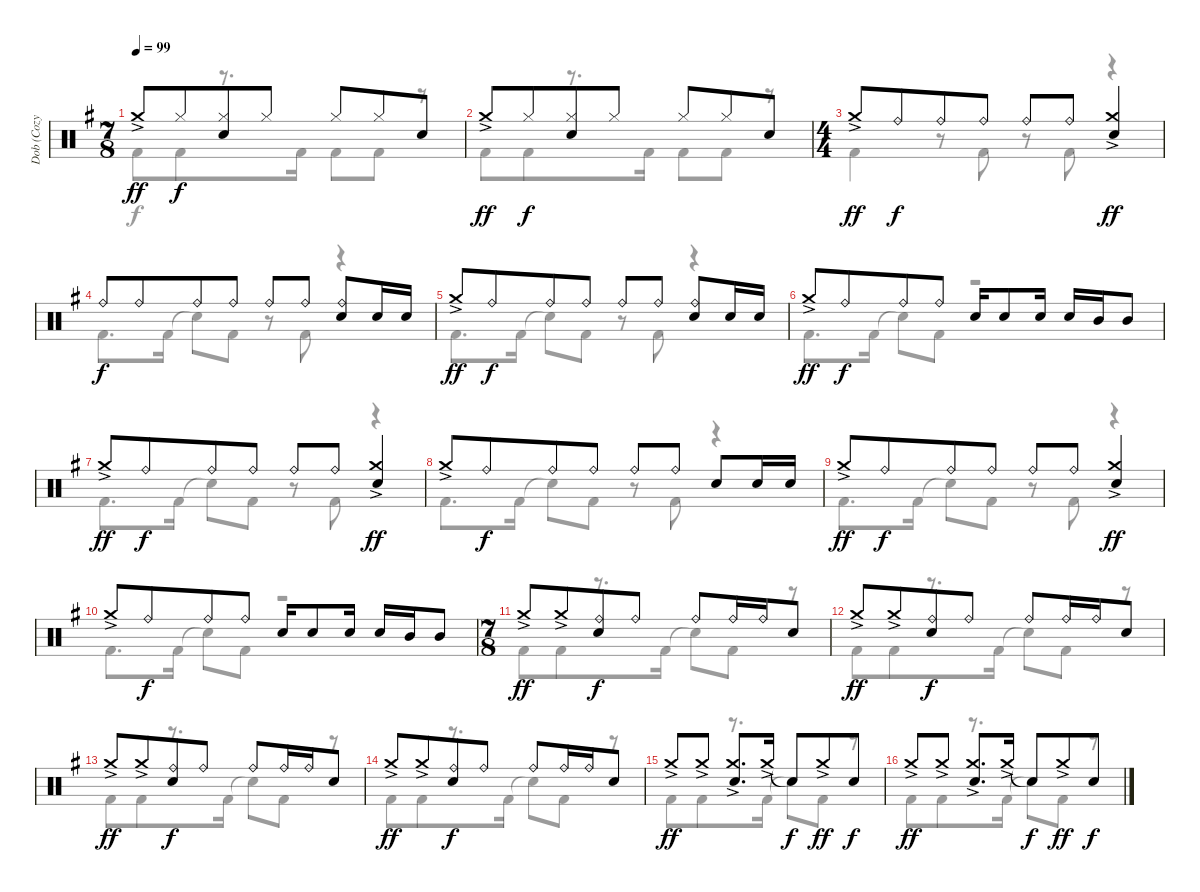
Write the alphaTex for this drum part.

\track ("Dob (Cozy Powell)" "Dob (Cozy ") {instrument percussion}
\staff {score}
\articulation defaults
\voice
\ts (7 8)
\tempo 99
\clef neutral
\ks g "Crash medium (hit)"{ac}.8{dy ff} "Hi-Hat (closed)".8{dy f}
("Hi-Hat (closed)" "Electric Snare (hit)").8{beam merge} "Hi-Hat (closed)".8{beam split} "Hi-Hat (closed)".8{beam merge} "Hi-Hat (closed)".8 "Electric Snare (hit)".8 |
"Crash medium (hit)"{ac}.8{dy ff} "Hi-Hat (closed)".8{dy f} ("Hi-Hat (closed)" "Electric Snare (hit)").8{beam merge} "Hi-Hat (closed)".8{beam split} "Hi-Hat (closed)".8{beam merge} "Hi-Hat (closed)".8 "Electric Snare (hit)".8 |
\ts (4 4)
"Crash medium (hit)"{ac}.8{dy ff} "Ride (bell)".8{dy f beam merge} "Ride (bell)".8 "Ride (bell)".8 "Ride (bell)".8 "Ride (bell)".8 ("Crash medium (hit)"{ac} "Electric Snare (hit)").4{dy ff} |
"Ride (bell)".8{dy f} "Ride (bell)".8{beam merge} "Ride (bell)".8 "Ride (bell)".8 "Ride (bell)".8 "Ride (bell)".8 ("Ride (bell)" "Electric Snare (hit)").8 "Electric Snare (hit)".16 "Electric Snare (hit)".16 |
"Crash medium (hit)"{ac}.8{dy ff} "Ride (bell)".8{dy f beam merge} "Ride (bell)".8 "Ride (bell)".8 "Ride (bell)".8 "Ride (bell)".8 ("Ride (bell)" "Electric Snare (hit)").8 "Electric Snare (hit)".16 "Electric Snare (hit)".16 |
"Crash medium (hit)"{ac}.8{dy ff} "Ride (bell)".8{dy f beam merge} "Ride (bell)".8 "Ride (bell)".8 "Electric Snare (hit)".16 "Electric Snare (hit)".8 "Electric Snare (hit)".16 "Electric Snare (hit)".16 "Mid Tom (hit)".16 "Mid Tom (hit)".8 |
"Crash medium (hit)"{ac}.8{dy ff} "Ride (bell)".8{dy f beam merge} "Ride (bell)".8 "Ride (bell)".8 "Ride (bell)".8 "Ride (bell)".8 ("Crash medium (hit)"{ac} "Electric Snare (hit)").4{dy ff} |
"Crash medium (hit)"{ac}.8 "Ride (bell)".8{dy f beam merge} "Ride (bell)".8 "Ride (bell)".8 "Ride (bell)".8 "Ride (bell)".8 "Electric Snare (hit)".8 "Electric Snare (hit)".16 "Electric Snare (hit)".16 |
"Crash medium (hit)"{ac}.8{dy ff} "Ride (bell)".8{dy f beam merge} "Ride (bell)".8 "Ride (bell)".8 "Ride (bell)".8 "Ride (bell)".8 ("Crash medium (hit)"{ac} "Electric Snare (hit)").4{dy ff} |
"Crash medium (hit)"{ac}.8 "Ride (bell)".8{dy f beam merge} "Ride (bell)".8 "Ride (bell)".8 "Electric Snare (hit)".16 "Electric Snare (hit)".8 "Electric Snare (hit)".16 "Electric Snare (hit)".16 "Mid Tom (hit)".16 "Mid Tom (hit)".8 |
\ts (7 8)
"Crash medium (hit)"{ac}.8{dy ff} "Crash medium (hit)"{ac}.8 ("Ride (bell)" "Electric Snare (hit)").8{dy f beam merge} "Ride (bell)".8{beam split} "Ride (bell)".8{beam merge} "Ride (bell)".16 "Ride (bell)".16 "Electric Snare (hit)".8 |
"Crash medium (hit)"{ac}.8{dy ff} "Crash medium (hit)"{ac}.8 ("Ride (bell)" "Electric Snare (hit)").8{dy f beam merge} "Ride (bell)".8{beam split} "Ride (bell)".8{beam merge} "Ride (bell)".16 "Ride (bell)".16 "Electric Snare (hit)".8 |
"Crash medium (hit)"{ac}.8{dy ff} "Crash medium (hit)"{ac}.8 ("Ride (bell)" "Electric Snare (hit)").8{dy f beam merge} "Ride (bell)".8{beam split} "Ride (bell)".8{beam merge} "Ride (bell)".16 "Ride (bell)".16 "Electric Snare (hit)".8 |
"Crash medium (hit)"{ac}.8{dy ff} "Crash medium (hit)"{ac}.8 ("Ride (bell)" "Electric Snare (hit)").8{dy f beam merge} "Ride (bell)".8{beam split} "Ride (bell)".8{beam merge} "Ride (bell)".16 "Ride (bell)".16 "Electric Snare (hit)".8 |
"Crash medium (hit)"{ac}.8{dy ff} "Crash medium (hit)"{ac}.8{beam split} ("Crash medium (hit)"{ac} "Electric Snare (hit)").8{d beam merge} "Crash medium (hit)"{ac}.16 "Snare (hit)"{t}.8{dy f} "Crash medium (hit)"{ac}.8{dy ff} "Electric Snare (hit)".8{dy f} |
"Crash medium (hit)"{ac}.8{dy ff} "Crash medium (hit)"{ac}.8{beam split} ("Crash medium (hit)"{ac} "Electric Snare (hit)").8{d beam merge} "Crash medium (hit)"{ac}.16 "Snare (hit)"{t}.8{dy f} "Crash medium (hit)"{ac}.8{dy ff} "Electric Snare (hit)".8{dy f}
\voice
\clef neutral
\ottava regular
\simile none
\ks g "Kick (hit) 2".8{dy f beam merge} "Kick (hit) 2".8
r.8{d} "Kick (hit) 2".16 "Kick (hit) 2".8{beam merge} "Kick (hit) 2".8 r.8 |
"Kick (hit) 2".8{beam merge} "Kick (hit) 2".8 r.8{d} "Kick (hit) 2".16 "Kick (hit) 2".8{beam merge} "Kick (hit) 2".8 r.8 |
"Kick (hit) 2".4 r.8 "Kick (hit) 2".8 r.8 "Kick (hit) 2".8 r.4 |
"Kick (hit) 2".8{d} "Kick (hit) 2".16 "Snare (hit)"{t}.8 "Kick (hit) 2".8 r.8 "Kick (hit) 2".8 r.4 |
"Kick (hit) 2".8{d} "Kick (hit) 2".16 "Snare (hit)"{t}.8 "Kick (hit) 2".8 r.8 "Kick (hit) 2".8 r.4 |
"Kick (hit) 2".8{d} "Kick (hit) 2".16 "Snare (hit)"{t}.8 "Kick (hit) 2".8 r.2 |
"Kick (hit) 2".8{d} "Kick (hit) 2".16 "Snare (hit)"{t}.8 "Kick (hit) 2".8 r.8 "Kick (hit) 2".8 r.4 |
"Kick (hit) 2".8{d} "Kick (hit) 2".16 "Snare (hit)"{t}.8 "Kick (hit) 2".8 r.8 "Kick (hit) 2".8 r.4 |
"Kick (hit) 2".8{d} "Kick (hit) 2".16 "Snare (hit)"{t}.8 "Kick (hit) 2".8 r.8 "Kick (hit) 2".8 r.4 |
"Kick (hit) 2".8{d} "Kick (hit) 2".16 "Snare (hit)"{t}.8 "Kick (hit) 2".8 r.2 |
"Kick (hit) 2".8{beam merge} "Kick (hit) 2".8 r.8{d} "Kick (hit) 2".16 "Snare (hit)"{t}.8{beam merge} "Kick (hit) 2".8 r.8 |
"Kick (hit) 2".8{beam merge} "Kick (hit) 2".8 r.8{d} "Kick (hit) 2".16 "Snare (hit)"{t}.8{beam merge} "Kick (hit) 2".8 r.8 |
"Kick (hit) 2".8{beam merge} "Kick (hit) 2".8 r.8{d} "Kick (hit) 2".16 "Snare (hit)"{t}.8{beam merge} "Kick (hit) 2".8 r.8 |
"Kick (hit) 2".8{beam merge} "Kick (hit) 2".8 r.8{d} "Kick (hit) 2".16 "Snare (hit)"{t}.8{beam merge} "Kick (hit) 2".8 r.8 |
"Kick (hit) 2".8{beam merge} "Kick (hit) 2".8 r.8{d} "Kick (hit) 2".16 "Snare (hit)"{t}.8{beam merge} "Kick (hit) 2".8 r.8 |
"Kick (hit) 2".8{beam merge} "Kick (hit) 2".8 r.8{d} "Kick (hit) 2".16 "Snare (hit)"{t}.8{beam merge} "Kick (hit) 2".8 r.8
